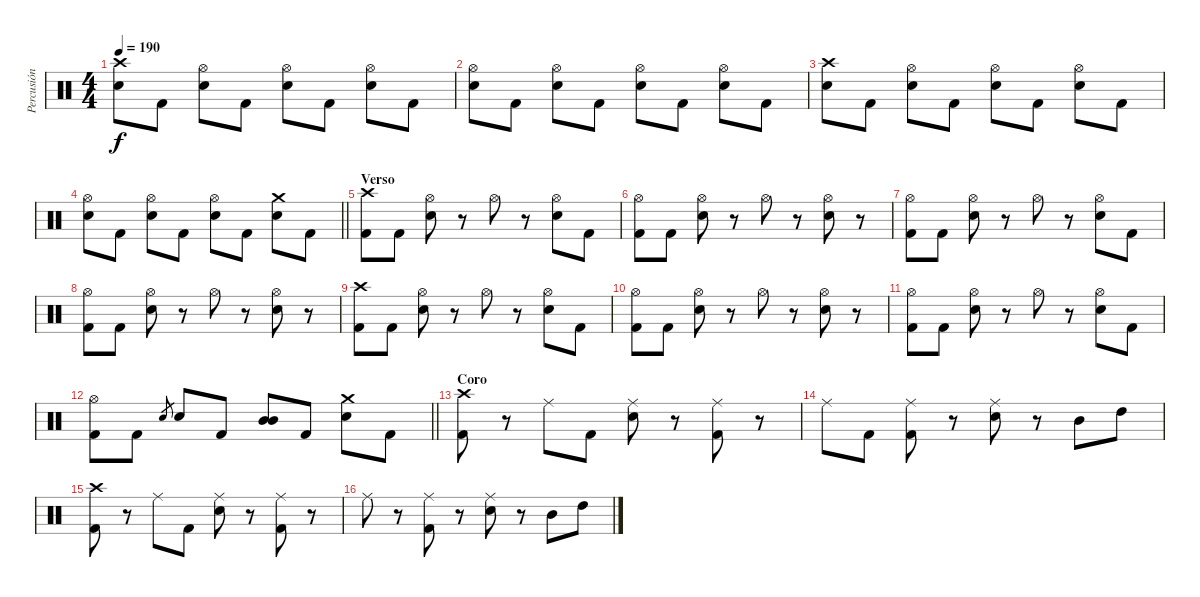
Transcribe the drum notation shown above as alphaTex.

\track ("Percusión" "Percusión") {instrument percussion}
\staff {score}
\articulation defaults
\ts (4 4)
\tempo 190
\clef neutral
\ks c
("Crash high (hit)" "Electric Snare (hit)").8{dy f} "Kick (hit) 2".8 ("Hi-Hat (open)" "Electric Snare (hit)").8 "Kick (hit) 2".8 ("Hi-Hat (open)" "Electric Snare (hit)").8 "Kick (hit) 2".8 ("Hi-Hat (open)" "Electric Snare (hit)").8 "Kick (hit) 2".8 |
("Hi-Hat (open)" "Electric Snare (hit)").8 "Kick (hit) 2".8 ("Hi-Hat (open)" "Electric Snare (hit)").8 "Kick (hit) 2".8 ("Hi-Hat (open)" "Electric Snare (hit)").8 "Kick (hit) 2".8 ("Hi-Hat (open)" "Electric Snare (hit)").8 "Kick (hit) 2".8 |
("Crash high (hit)" "Electric Snare (hit)").8 "Kick (hit) 2".8 ("Hi-Hat (open)" "Electric Snare (hit)").8 "Kick (hit) 2".8 ("Hi-Hat (open)" "Electric Snare (hit)").8 "Kick (hit) 2".8 ("Hi-Hat (open)" "Electric Snare (hit)").8 "Kick (hit) 2".8 |
\barLineRight lightlight
("Hi-Hat (open)" "Electric Snare (hit)").8 "Kick (hit) 2".8 ("Hi-Hat (open)" "Electric Snare (hit)").8 "Kick (hit) 2".8 ("Hi-Hat (open)" "Electric Snare (hit)").8 "Kick (hit) 2".8 ("Crash medium (hit)" "Electric Snare (hit)").8 "Kick (hit) 2".8 |
\section ("" "Verso")
("Crash high (hit)" "Kick (hit) 2").8 "Kick (hit) 2".8 ("Hi-Hat (open)" "Electric Snare (hit)").8 r.8 "Hi-Hat (open)".8 r.8 ("Hi-Hat (open)" "Electric Snare (hit)").8 "Kick (hit) 2".8 |
("Hi-Hat (open)" "Kick (hit) 2").8 "Kick (hit) 2".8 ("Hi-Hat (open)" "Electric Snare (hit)").8 r.8 "Hi-Hat (open)".8 r.8 ("Hi-Hat (open)" "Electric Snare (hit)").8 r.8 |
("Hi-Hat (open)" "Kick (hit) 2").8 "Kick (hit) 2".8 ("Hi-Hat (open)" "Electric Snare (hit)").8 r.8 "Hi-Hat (open)".8 r.8 ("Hi-Hat (open)" "Electric Snare (hit)").8 "Kick (hit) 2".8 |
("Hi-Hat (open)" "Kick (hit) 2").8 "Kick (hit) 2".8 ("Hi-Hat (open)" "Electric Snare (hit)").8 r.8 "Hi-Hat (open)".8 r.8 ("Hi-Hat (open)" "Electric Snare (hit)").8 r.8 |
("Crash high (hit)" "Kick (hit) 2").8 "Kick (hit) 2".8 ("Hi-Hat (open)" "Electric Snare (hit)").8 r.8 "Hi-Hat (open)".8 r.8 ("Hi-Hat (open)" "Electric Snare (hit)").8 "Kick (hit) 2".8 |
("Hi-Hat (open)" "Kick (hit) 2").8 "Kick (hit) 2".8 ("Hi-Hat (open)" "Electric Snare (hit)").8 r.8 "Hi-Hat (open)".8 r.8 ("Hi-Hat (open)" "Electric Snare (hit)").8 r.8 |
("Hi-Hat (open)" "Kick (hit) 2").8 "Kick (hit) 2".8 ("Hi-Hat (open)" "Electric Snare (hit)").8 r.8 "Hi-Hat (open)".8 r.8 ("Hi-Hat (open)" "Electric Snare (hit)").8 "Kick (hit) 2".8 |
\barLineRight lightlight
("Hi-Hat (open)" "Kick (hit) 2").8 "Kick (hit) 2".8 "Electric Snare (hit)".8{gr} "Electric Snare (hit)".8 "Kick (hit) 2".8 ("Mid Tom (hit)" "Mid Tom (hit)").8 "Kick (hit) 2".8 ("Crash medium (hit)" "Electric Snare (hit)").8 "Kick (hit) 2".8 |
\section ("" "Coro")
("Crash high (hit)" "Kick (hit) 2").8 r.8 "Ride (middle)".8 "Kick (hit) 2".8 ("Ride (middle)" "Electric Snare (hit)").8 r.8 ("Ride (middle)" "Kick (hit) 2").8 r.8 |
"Ride (middle)".8 "Kick (hit) 2".8 ("Ride (middle)" "Kick (hit) 2").8 r.8 ("Ride (middle)" "Electric Snare (hit)").8 r.8 "Mid Tom (hit)".8 "High Tom (hit)".8 |
("Crash high (hit)" "Kick (hit) 2").8 r.8 "Ride (middle)".8 "Kick (hit) 2".8 ("Ride (middle)" "Electric Snare (hit)").8 r.8 ("Ride (middle)" "Kick (hit) 2").8 r.8 |
"Ride (middle)".8 r.8 ("Ride (middle)" "Kick (hit) 2").8 r.8 ("Ride (middle)" "Electric Snare (hit)").8 r.8 "Mid Tom (hit)".8 "High Tom (hit)".8
